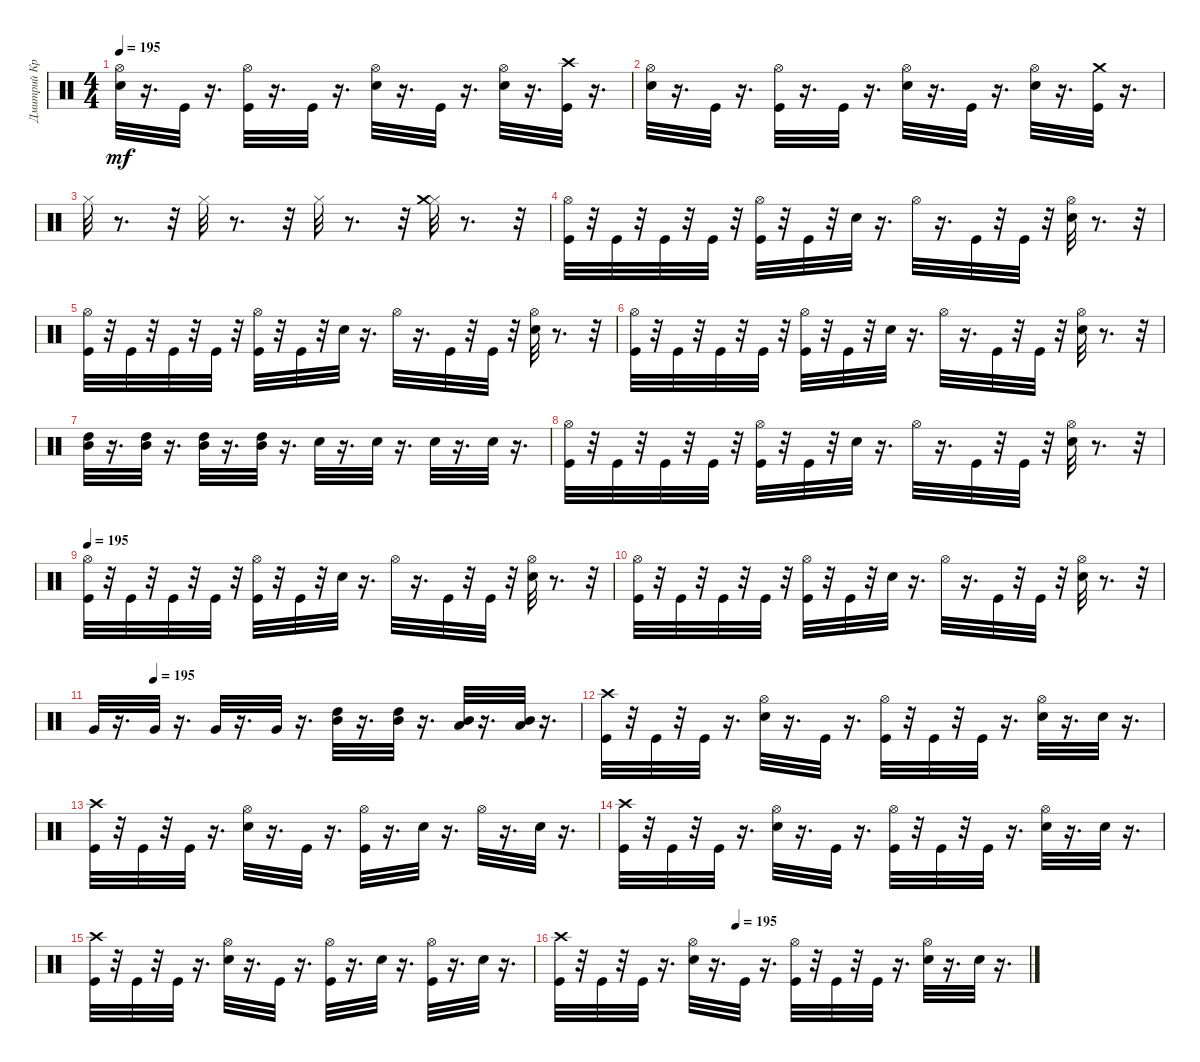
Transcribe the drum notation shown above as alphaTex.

\track ("Дмитрий Кривенков" "Дмитрий Кр") {instrument percussion}
\staff {score}
\articulation defaults
\ts (4 4)
\tempo 195
\clef neutral
\ks c
("Hi-Hat (open)" "Electric Snare (hit)").32{dy mf} r.16{d} "Kick (hit)".32 r.16{d} ("Hi-Hat (open)" "Kick (hit)").32 r.16{d} "Kick (hit)".32 r.16{d} ("Hi-Hat (open)" "Electric Snare (hit)").32 r.16{d} "Kick (hit)".32 r.16{d} ("Electric Snare (hit)" "Hi-Hat (open)").32 r.16{d} ("Crash high (hit)" "Kick (hit)").32 r.16{d} |
("Electric Snare (hit)" "Hi-Hat (open)").32 r.16{d} "Kick (hit)".32 r.16{d} ("Kick (hit)" "Hi-Hat (open)").32 r.16{d} "Kick (hit)".32 r.16{d} ("Electric Snare (hit)" "Hi-Hat (open)").32 r.16{d} "Kick (hit)".32 r.16{d} ("Electric Snare (hit)" "Hi-Hat (open)").32 r.16{d} ("Kick (hit)" "Crash medium (hit)").32 r.16{d} |
"Hi-Hat (closed)".32 r.8{d} r.32 "Hi-Hat (closed)".32 r.8{d} r.32 "Hi-Hat (closed)".32 r.8{d} r.32 ("Hi-Hat (closed)" "Crash medium (hit)").32 r.8{d} r.32 |
("Kick (hit)" "Hi-Hat (open)").32 r.32 "Kick (hit)".32 r.32 "Kick (hit)".32 r.32 "Kick (hit)".32 r.32 ("Kick (hit)" "Hi-Hat (open)").32 r.32 "Kick (hit)".32 r.32 "Electric Snare (hit)".32 r.16{d} "Hi-Hat (open)".32 r.16{d} "Kick (hit)".32 r.32 "Kick (hit)".32 r.32 ("Hi-Hat (open)" "Electric Snare (hit)").32 r.8{d} r.32 |
("Kick (hit)" "Hi-Hat (open)").32 r.32 "Kick (hit)".32 r.32 "Kick (hit)".32 r.32 "Kick (hit)".32 r.32 ("Kick (hit)" "Hi-Hat (open)").32 r.32 "Kick (hit)".32 r.32 "Electric Snare (hit)".32 r.16{d} "Hi-Hat (open)".32 r.16{d} "Kick (hit)".32 r.32 "Kick (hit)".32 r.32 ("Electric Snare (hit)" "Hi-Hat (open)").32 r.8{d} r.32 |
("Kick (hit)" "Hi-Hat (open)").32 r.32 "Kick (hit)".32 r.32 "Kick (hit)".32 r.32 "Kick (hit)".32 r.32 ("Kick (hit)" "Hi-Hat (open)").32 r.32 "Kick (hit)".32 r.32 "Electric Snare (hit)".32 r.16{d} "Hi-Hat (open)".32 r.16{d} "Kick (hit)".32 r.32 "Kick (hit)".32 r.32 ("Electric Snare (hit)" "Hi-Hat (open)").32 r.8{d} r.32 |
("Mid Tom (hit)" "High Tom (hit)").32 r.16{d} ("Mid Tom (hit)" "High Tom (hit)").32 r.16{d} ("High Tom (hit)" "Mid Tom (hit)").32 r.16{d} ("High Tom (hit)" "Mid Tom (hit)").32 r.16{d} "Electric Snare (hit)".32 r.16{d} "Electric Snare (hit)".32 r.16{d} "Electric Snare (hit)".32 r.16{d} "Electric Snare (hit)".32 r.16{d} |
("Kick (hit)" "Hi-Hat (open)").32 r.32 "Kick (hit)".32 r.32 "Kick (hit)".32 r.32 "Kick (hit)".32 r.32 ("Kick (hit)" "Hi-Hat (open)").32 r.32 "Kick (hit)".32 r.32 "Electric Snare (hit)".32 r.16{d} "Hi-Hat (open)".32 r.16{d} "Kick (hit)".32 r.32 "Kick (hit)".32 r.32 ("Hi-Hat (open)" "Electric Snare (hit)").32 r.8{d} r.32 |
\tempo 195
("Kick (hit)" "Hi-Hat (open)").32 r.32 "Kick (hit)".32 r.32 "Kick (hit)".32 r.32 "Kick (hit)".32 r.32 ("Kick (hit)" "Hi-Hat (open)").32 r.32 "Kick (hit)".32 r.32 "Electric Snare (hit)".32 r.16{d} "Hi-Hat (open)".32 r.16{d} "Kick (hit)".32 r.32 "Kick (hit)".32 r.32 ("Electric Snare (hit)" "Hi-Hat (open)").32 r.8{d} r.32 |
("Kick (hit)" "Hi-Hat (open)").32 r.32 "Kick (hit)".32 r.32 "Kick (hit)".32 r.32 "Kick (hit)".32 r.32 ("Kick (hit)" "Hi-Hat (open)").32 r.32 "Kick (hit)".32 r.32 "Electric Snare (hit)".32 r.16{d} "Hi-Hat (open)".32 r.16{d} "Kick (hit)".32 r.32 "Kick (hit)".32 r.32 ("Electric Snare (hit)" "Hi-Hat (open)").32 r.8{d} r.32 |
\tempo (195 0.125)
"Very Low Tom (hit)".32 r.16{d} "Very Low Tom (hit)".32 r.16{d} "Very Low Tom (hit)".32 r.16{d} "Very Low Tom (hit)".32 r.16{d} ("Mid Tom (hit)" "High Tom (hit)").32 r.16{d} ("Mid Tom (hit)" "High Tom (hit)").32 r.16{d} ("Low Tom (hit)" "Mid Tom (hit)").32 r.16{d} ("Low Tom (hit)" "Mid Tom (hit)").32 r.16{d} |
("Kick (hit)" "Crash high (hit)").32 r.32 "Kick (hit)".32 r.32 "Kick (hit)".32 r.16{d} ("Hi-Hat (open)" "Electric Snare (hit)").32 r.16{d} "Kick (hit)".32 r.16{d} ("Kick (hit)" "Hi-Hat (open)").32 r.32 "Kick (hit)".32 r.32 "Kick (hit)".32 r.16{d} ("Hi-Hat (open)" "Electric Snare (hit)").32 r.16{d} "Electric Snare (hit)".32 r.16{d} |
("Crash high (hit)" "Kick (hit)").32 r.32 "Kick (hit)".32 r.32 "Kick (hit)".32 r.16{d} ("Electric Snare (hit)" "Hi-Hat (open)").32 r.16{d} "Kick (hit)".32 r.16{d} ("Kick (hit)" "Hi-Hat (open)").32 r.16{d} "Electric Snare (hit)".32 r.16{d} "Hi-Hat (open)".32 r.16{d} "Electric Snare (hit)".32 r.16{d} |
("Crash high (hit)" "Kick (hit)").32 r.32 "Kick (hit)".32 r.32 "Kick (hit)".32 r.16{d} ("Electric Snare (hit)" "Hi-Hat (open)").32 r.16{d} "Kick (hit)".32 r.16{d} ("Kick (hit)" "Hi-Hat (open)").32 r.32 "Kick (hit)".32 r.32 "Kick (hit)".32 r.16{d} ("Electric Snare (hit)" "Hi-Hat (open)").32 r.16{d} "Electric Snare (hit)".32 r.16{d} |
("Crash high (hit)" "Kick (hit)").32 r.32 "Kick (hit)".32 r.32 "Kick (hit)".32 r.16{d} ("Electric Snare (hit)" "Hi-Hat (open)").32 r.16{d} "Kick (hit)".32 r.16{d} ("Kick (hit)" "Hi-Hat (open)").32 r.16{d} "Electric Snare (hit)".32 r.16{d} ("Kick (hit)" "Hi-Hat (open)").32 r.16{d} "Electric Snare (hit)".32 r.16{d} |
\tempo (195 0.375)
("Crash high (hit)" "Kick (hit)").32 r.32 "Kick (hit)".32 r.32 "Kick (hit)".32 r.16{d} ("Electric Snare (hit)" "Hi-Hat (open)").32 r.16{d} "Kick (hit)".32 r.16{d} ("Kick (hit)" "Hi-Hat (open)").32 r.32 "Kick (hit)".32 r.32 "Kick (hit)".32 r.16{d} ("Electric Snare (hit)" "Hi-Hat (open)").32 r.16{d} "Electric Snare (hit)".32 r.16{d}
